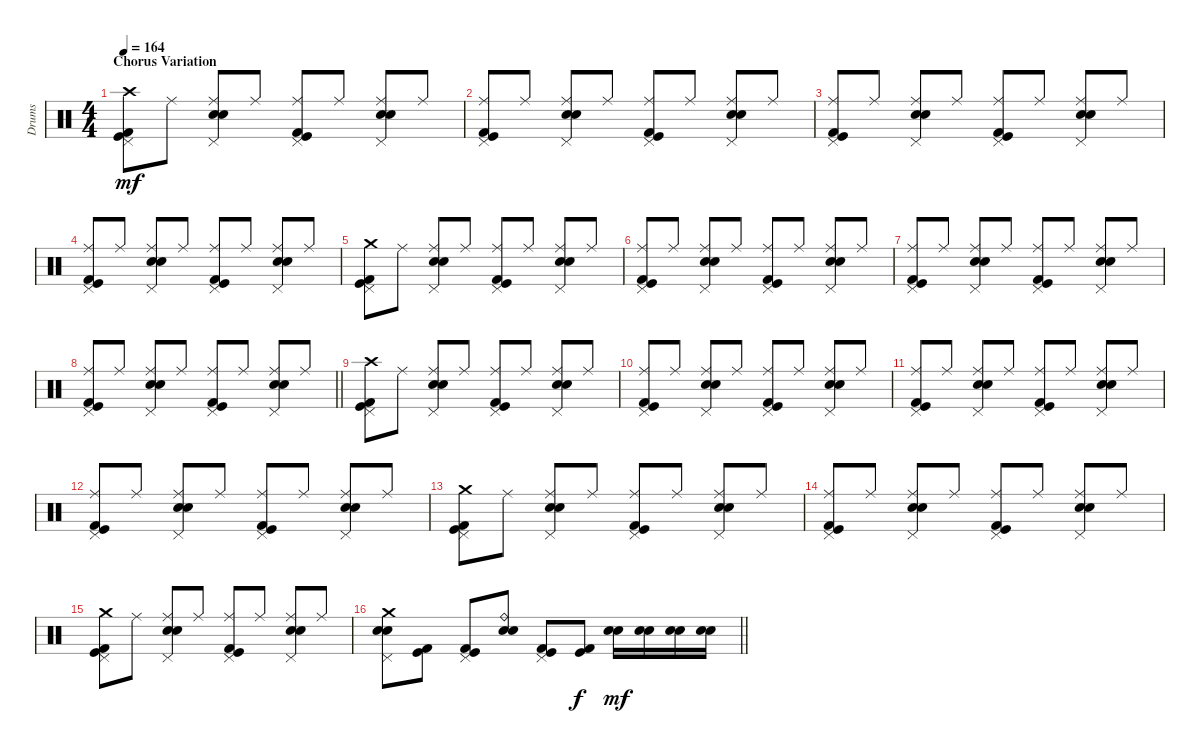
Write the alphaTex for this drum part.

\track ("Drums" "Drums") {instrument percussion}
\staff {score}
\articulation defaults
\ts (4 4)
\section ("" "Chorus Variation")
\tempo 164
\clef neutral
\ks c
("Crash high (hit)" "Pedal Hi-Hat (hit)" "Kick (hit) 2" "Kick (hit)").8{dy mf} "Ride (middle)".8 ("Ride (middle)" "Pedal Hi-Hat (hit)" "Snare (hit) 2" "Electric Snare (hit)").8 "Ride (middle)".8 ("Ride (middle)" "Pedal Hi-Hat (hit)" "Kick (hit) 2" "Kick (hit)").8 "Ride (middle)".8 ("Ride (middle)" "Pedal Hi-Hat (hit)" "Snare (hit) 2" "Electric Snare (hit)").8 "Ride (middle)".8 |
("Ride (middle)" "Pedal Hi-Hat (hit)" "Kick (hit) 2" "Kick (hit)").8 "Ride (middle)".8 ("Ride (middle)" "Pedal Hi-Hat (hit)" "Snare (hit) 2" "Electric Snare (hit)").8 "Ride (middle)".8 ("Ride (middle)" "Pedal Hi-Hat (hit)" "Kick (hit) 2" "Kick (hit)").8 "Ride (middle)".8 ("Ride (middle)" "Pedal Hi-Hat (hit)" "Snare (hit) 2" "Electric Snare (hit)").8 "Ride (middle)".8 |
("Ride (middle)" "Pedal Hi-Hat (hit)" "Kick (hit) 2" "Kick (hit)").8 "Ride (middle)".8 ("Ride (middle)" "Pedal Hi-Hat (hit)" "Snare (hit) 2" "Electric Snare (hit)").8 "Ride (middle)".8 ("Ride (middle)" "Pedal Hi-Hat (hit)" "Kick (hit) 2" "Kick (hit)").8 "Ride (middle)".8 ("Ride (middle)" "Pedal Hi-Hat (hit)" "Snare (hit) 2" "Electric Snare (hit)").8 "Ride (middle)".8 |
("Ride (middle)" "Pedal Hi-Hat (hit)" "Kick (hit) 2" "Kick (hit)").8 "Ride (middle)".8 ("Ride (middle)" "Pedal Hi-Hat (hit)" "Snare (hit) 2" "Electric Snare (hit)").8 "Ride (middle)".8 ("Ride (middle)" "Pedal Hi-Hat (hit)" "Kick (hit) 2" "Kick (hit)").8 "Ride (middle)".8 ("Ride (middle)" "Pedal Hi-Hat (hit)" "Snare (hit) 2" "Electric Snare (hit)").8 "Ride (middle)".8 |
("Crash medium (hit)" "Pedal Hi-Hat (hit)" "Kick (hit) 2" "Kick (hit)").8 "Ride (middle)".8 ("Ride (middle)" "Pedal Hi-Hat (hit)" "Snare (hit) 2" "Electric Snare (hit)").8 "Ride (middle)".8 ("Ride (middle)" "Pedal Hi-Hat (hit)" "Kick (hit) 2" "Kick (hit)").8 "Ride (middle)".8 ("Ride (middle)" "Pedal Hi-Hat (hit)" "Snare (hit) 2" "Electric Snare (hit)").8 "Ride (middle)".8 |
("Ride (middle)" "Pedal Hi-Hat (hit)" "Kick (hit) 2" "Kick (hit)").8 "Ride (middle)".8 ("Ride (middle)" "Pedal Hi-Hat (hit)" "Snare (hit) 2" "Electric Snare (hit)").8 "Ride (middle)".8 ("Ride (middle)" "Pedal Hi-Hat (hit)" "Kick (hit) 2" "Kick (hit)").8 "Ride (middle)".8 ("Ride (middle)" "Pedal Hi-Hat (hit)" "Snare (hit) 2" "Electric Snare (hit)").8 "Ride (middle)".8 |
("Ride (middle)" "Pedal Hi-Hat (hit)" "Kick (hit) 2" "Kick (hit)").8 "Ride (middle)".8 ("Ride (middle)" "Pedal Hi-Hat (hit)" "Snare (hit) 2" "Electric Snare (hit)").8 "Ride (middle)".8 ("Ride (middle)" "Pedal Hi-Hat (hit)" "Kick (hit) 2" "Kick (hit)").8 "Ride (middle)".8 ("Ride (middle)" "Pedal Hi-Hat (hit)" "Snare (hit) 2" "Electric Snare (hit)").8 "Ride (middle)".8 |
\barLineRight lightlight
("Ride (middle)" "Pedal Hi-Hat (hit)" "Kick (hit) 2" "Kick (hit)").8 "Ride (middle)".8 ("Ride (middle)" "Pedal Hi-Hat (hit)" "Snare (hit) 2" "Electric Snare (hit)").8 "Ride (middle)".8 ("Ride (middle)" "Pedal Hi-Hat (hit)" "Kick (hit) 2" "Kick (hit)").8 "Ride (middle)".8 ("Ride (middle)" "Pedal Hi-Hat (hit)" "Snare (hit) 2" "Electric Snare (hit)").8 "Ride (middle)".8 |
("Crash high (hit)" "Pedal Hi-Hat (hit)" "Kick (hit) 2" "Kick (hit)").8 "Ride (middle)".8 ("Ride (middle)" "Pedal Hi-Hat (hit)" "Snare (hit) 2" "Electric Snare (hit)").8 "Ride (middle)".8 ("Ride (middle)" "Pedal Hi-Hat (hit)" "Kick (hit) 2" "Kick (hit)").8 "Ride (middle)".8 ("Ride (middle)" "Pedal Hi-Hat (hit)" "Snare (hit) 2" "Electric Snare (hit)").8 "Ride (middle)".8 |
("Ride (middle)" "Pedal Hi-Hat (hit)" "Kick (hit) 2" "Kick (hit)").8 "Ride (middle)".8 ("Ride (middle)" "Pedal Hi-Hat (hit)" "Snare (hit) 2" "Electric Snare (hit)").8 "Ride (middle)".8 ("Ride (middle)" "Pedal Hi-Hat (hit)" "Kick (hit) 2" "Kick (hit)").8 "Ride (middle)".8 ("Ride (middle)" "Pedal Hi-Hat (hit)" "Snare (hit) 2" "Electric Snare (hit)").8 "Ride (middle)".8 |
("Ride (middle)" "Pedal Hi-Hat (hit)" "Kick (hit) 2" "Kick (hit)").8 "Ride (middle)".8 ("Ride (middle)" "Pedal Hi-Hat (hit)" "Snare (hit) 2" "Electric Snare (hit)").8 "Ride (middle)".8 ("Ride (middle)" "Pedal Hi-Hat (hit)" "Kick (hit) 2" "Kick (hit)").8 "Ride (middle)".8 ("Ride (middle)" "Pedal Hi-Hat (hit)" "Snare (hit) 2" "Electric Snare (hit)").8 "Ride (middle)".8 |
("Ride (middle)" "Pedal Hi-Hat (hit)" "Kick (hit) 2" "Kick (hit)").8 "Ride (middle)".8 ("Ride (middle)" "Pedal Hi-Hat (hit)" "Snare (hit) 2" "Electric Snare (hit)").8 "Ride (middle)".8 ("Ride (middle)" "Pedal Hi-Hat (hit)" "Kick (hit) 2" "Kick (hit)").8 "Ride (middle)".8 ("Ride (middle)" "Pedal Hi-Hat (hit)" "Snare (hit) 2" "Electric Snare (hit)").8 "Ride (middle)".8 |
("Crash medium (hit)" "Pedal Hi-Hat (hit)" "Kick (hit) 2" "Kick (hit)").8 "Ride (middle)".8 ("Ride (middle)" "Pedal Hi-Hat (hit)" "Snare (hit) 2" "Electric Snare (hit)").8 "Ride (middle)".8 ("Ride (middle)" "Pedal Hi-Hat (hit)" "Kick (hit) 2" "Kick (hit)").8 "Ride (middle)".8 ("Ride (middle)" "Pedal Hi-Hat (hit)" "Snare (hit) 2" "Electric Snare (hit)").8 "Ride (middle)".8 |
("Ride (middle)" "Pedal Hi-Hat (hit)" "Kick (hit) 2" "Kick (hit)").8 "Ride (middle)".8 ("Ride (middle)" "Pedal Hi-Hat (hit)" "Snare (hit) 2" "Electric Snare (hit)").8 "Ride (middle)".8 ("Ride (middle)" "Pedal Hi-Hat (hit)" "Kick (hit) 2" "Kick (hit)").8 "Ride (middle)".8 ("Ride (middle)" "Pedal Hi-Hat (hit)" "Snare (hit) 2" "Electric Snare (hit)").8 "Ride (middle)".8 |
("Crash medium (hit)" "Pedal Hi-Hat (hit)" "Kick (hit) 2" "Kick (hit)").8 "Ride (middle)".8 ("Ride (middle)" "Pedal Hi-Hat (hit)" "Snare (hit) 2" "Electric Snare (hit)").8 "Ride (middle)".8 ("Ride (middle)" "Pedal Hi-Hat (hit)" "Kick (hit) 2" "Kick (hit)").8 "Ride (middle)".8 ("Ride (middle)" "Pedal Hi-Hat (hit)" "Snare (hit) 2" "Electric Snare (hit)").8 "Ride (middle)".8 |
\barLineRight lightlight
("Crash medium (hit)" "Pedal Hi-Hat (hit)" "Snare (hit) 2" "Electric Snare (hit)").8 ("Kick (hit) 2" "Kick (hit)").8 ("Pedal Hi-Hat (hit)" "Kick (hit) 2" "Kick (hit)").8 ("Ride (bell)" "Snare (hit) 2" "Electric Snare (hit)").8 ("Pedal Hi-Hat (hit)" "Kick (hit) 2" "Kick (hit)").8 ("Kick (hit) 2" "Kick (hit)").8{dy f} ("Snare (hit) 2" "Electric Snare (hit)").16{dy mf} ("Snare (hit) 2" "Electric Snare (hit)").16 ("Snare (hit) 2" "Electric Snare (hit)").16 ("Snare (hit) 2" "Electric Snare (hit)").16
